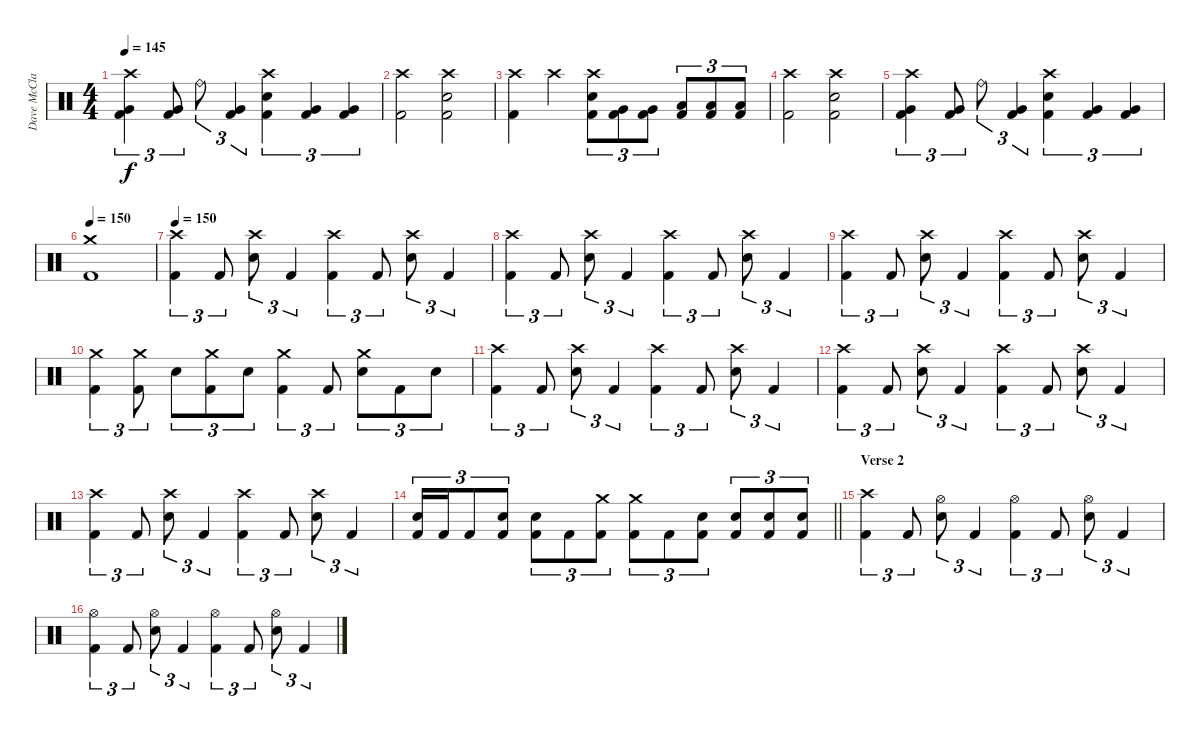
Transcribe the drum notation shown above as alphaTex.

\track ("Dave McClain" "Dave McCla") {instrument percussion}
\staff {score}
\articulation defaults
\ts (4 4)
\tempo 145
\clef neutral
\ks c
("Crash high (hit)" "Very Low Tom (hit)" "Kick (hit) 2").4{tu (3 2) dy f} ("Very Low Tom (hit)" "Kick (hit) 2").8{tu (3 2)} "Ride (bell)".8{tu (3 2)} ("Very Low Tom (hit)" "Kick (hit) 2").4{tu (3 2)} ("Crash high (hit)" "Snare (hit) 2" "Kick (hit) 2").4{tu (3 2)} ("Very Low Tom (hit)" "Kick (hit) 2").4{tu (3 2)} ("Very Low Tom (hit)" "Kick (hit) 2").4{tu (3 2)} |
("Crash high (hit)" "Kick (hit) 2").2 ("Crash high (hit)" "Snare (hit) 2" "Kick (hit) 2").2 |
("Crash high (hit)" "Kick (hit) 2").4 "Crash high (hit)".4 ("Crash high (hit)" "Snare (hit) 2" "Kick (hit) 2").8{tu (3 2)} ("Very Low Tom (hit)" "Kick (hit) 2").8{tu (3 2)} ("Very Low Tom (hit)" "Kick (hit) 2").8{tu (3 2)} ("Low Tom (hit)" "Kick (hit) 2").8{tu (3 2)} ("Low Tom (hit)" "Kick (hit) 2").8{tu (3 2)} ("Low Tom (hit)" "Kick (hit) 2").8{tu (3 2)} |
("Crash high (hit)" "Kick (hit) 2").2 ("Crash high (hit)" "Snare (hit) 2" "Kick (hit) 2").2 |
("Crash high (hit)" "Very Low Tom (hit)" "Kick (hit) 2").4{tu (3 2)} ("Very Low Tom (hit)" "Kick (hit) 2").8{tu (3 2)} "Ride (bell)".8{tu (3 2)} ("Very Low Tom (hit)" "Kick (hit) 2").4{tu (3 2)} ("Crash high (hit)" "Snare (hit) 2" "Kick (hit) 2").4{tu (3 2)} ("Very Low Tom (hit)" "Kick (hit) 2").4{tu (3 2)} ("Very Low Tom (hit)" "Kick (hit) 2").4{tu (3 2)} |
\tempo 150
("Crash medium (hit)" "Kick (hit) 2").1 |
\tempo 150
("Crash high (hit)" "Kick (hit) 2").4{tu (3 2)} "Kick (hit) 2".8{tu (3 2)} ("Crash high (hit)" "Snare (hit) 2").8{tu (3 2)} "Kick (hit) 2".4{tu (3 2)} ("Crash high (hit)" "Kick (hit) 2").4{tu (3 2)} "Kick (hit) 2".8{tu (3 2)} ("Crash high (hit)" "Snare (hit) 2").8{tu (3 2)} "Kick (hit) 2".4{tu (3 2)} |
("Crash high (hit)" "Kick (hit) 2").4{tu (3 2)} "Kick (hit) 2".8{tu (3 2)} ("Crash high (hit)" "Snare (hit) 2").8{tu (3 2)} "Kick (hit) 2".4{tu (3 2)} ("Crash high (hit)" "Kick (hit) 2").4{tu (3 2)} "Kick (hit) 2".8{tu (3 2)} ("Crash high (hit)" "Snare (hit) 2").8{tu (3 2)} "Kick (hit) 2".4{tu (3 2)} |
("Crash high (hit)" "Kick (hit) 2").4{tu (3 2)} "Kick (hit) 2".8{tu (3 2)} ("Crash high (hit)" "Snare (hit) 2").8{tu (3 2)} "Kick (hit) 2".4{tu (3 2)} ("Crash high (hit)" "Kick (hit) 2").4{tu (3 2)} "Kick (hit) 2".8{tu (3 2)} ("Crash high (hit)" "Snare (hit) 2").8{tu (3 2)} "Kick (hit) 2".4{tu (3 2)} |
("Crash medium (hit)" "Kick (hit) 2").4{tu (3 2)} ("Crash medium (hit)" "Kick (hit) 2").8{tu (3 2)} "Snare (hit) 2".8{tu (3 2)} ("Crash medium (hit)" "Kick (hit) 2").8{tu (3 2)} "Snare (hit) 2".8{tu (3 2)} ("Crash medium (hit)" "Kick (hit) 2").4{tu (3 2)} "Kick (hit) 2".8{tu (3 2)} ("Crash medium (hit)" "Snare (hit) 2").8{tu (3 2)} "Kick (hit) 2".8{tu (3 2)} "Snare (hit) 2".8{tu (3 2)} |
("Crash high (hit)" "Kick (hit) 2").4{tu (3 2)} "Kick (hit) 2".8{tu (3 2)} ("Crash high (hit)" "Snare (hit) 2").8{tu (3 2)} "Kick (hit) 2".4{tu (3 2)} ("Crash high (hit)" "Kick (hit) 2").4{tu (3 2)} "Kick (hit) 2".8{tu (3 2)} ("Crash high (hit)" "Snare (hit) 2").8{tu (3 2)} "Kick (hit) 2".4{tu (3 2)} |
("Crash high (hit)" "Kick (hit) 2").4{tu (3 2)} "Kick (hit) 2".8{tu (3 2)} ("Crash high (hit)" "Snare (hit) 2").8{tu (3 2)} "Kick (hit) 2".4{tu (3 2)} ("Crash high (hit)" "Kick (hit) 2").4{tu (3 2)} "Kick (hit) 2".8{tu (3 2)} ("Crash high (hit)" "Snare (hit) 2").8{tu (3 2)} "Kick (hit) 2".4{tu (3 2)} |
("Crash high (hit)" "Kick (hit) 2").4{tu (3 2)} "Kick (hit) 2".8{tu (3 2)} ("Crash high (hit)" "Snare (hit) 2").8{tu (3 2)} "Kick (hit) 2".4{tu (3 2)} ("Crash high (hit)" "Kick (hit) 2").4{tu (3 2)} "Kick (hit) 2".8{tu (3 2)} ("Crash high (hit)" "Snare (hit) 2").8{tu (3 2)} "Kick (hit) 2".4{tu (3 2)} |
\barLineRight lightlight
("Snare (hit) 2" "Kick (hit) 2").16{tu (3 2)} "Kick (hit) 2".16{tu (3 2)} "Kick (hit) 2".8{tu (3 2)} ("Snare (hit) 2" "Kick (hit) 2").8{tu (3 2)} ("Snare (hit) 2" "Kick (hit) 2").8{tu (3 2)} "Kick (hit) 2".8{tu (3 2)} ("Crash medium (hit)" "Kick (hit) 2").8{tu (3 2)} ("Crash medium (hit)" "Kick (hit) 2").8{tu (3 2)} "Kick (hit) 2".8{tu (3 2)} ("Snare (hit) 2" "Kick (hit) 2").8{tu (3 2)} ("Snare (hit) 2" "Kick (hit) 2").8{tu (3 2)} ("Snare (hit) 2" "Kick (hit) 2").8{tu (3 2)} ("Snare (hit) 2" "Kick (hit) 2").8{tu (3 2)} |
\section ("" "Verse 2")
("Crash high (hit)" "Kick (hit) 2").4{tu (3 2)} "Kick (hit) 2".8{tu (3 2)} ("Hi-Hat (open)" "Snare (hit) 2").8{tu (3 2)} "Kick (hit) 2".4{tu (3 2)} ("Hi-Hat (open)" "Kick (hit) 2").4{tu (3 2)} "Kick (hit) 2".8{tu (3 2)} ("Hi-Hat (open)" "Snare (hit) 2").8{tu (3 2)} "Kick (hit) 2".4{tu (3 2)} |
("Hi-Hat (open)" "Kick (hit) 2").4{tu (3 2)} "Kick (hit) 2".8{tu (3 2)} ("Hi-Hat (open)" "Snare (hit) 2").8{tu (3 2)} "Kick (hit) 2".4{tu (3 2)} ("Hi-Hat (open)" "Kick (hit) 2").4{tu (3 2)} "Kick (hit) 2".8{tu (3 2)} ("Hi-Hat (open)" "Snare (hit) 2").8{tu (3 2)} "Kick (hit) 2".4{tu (3 2)}
